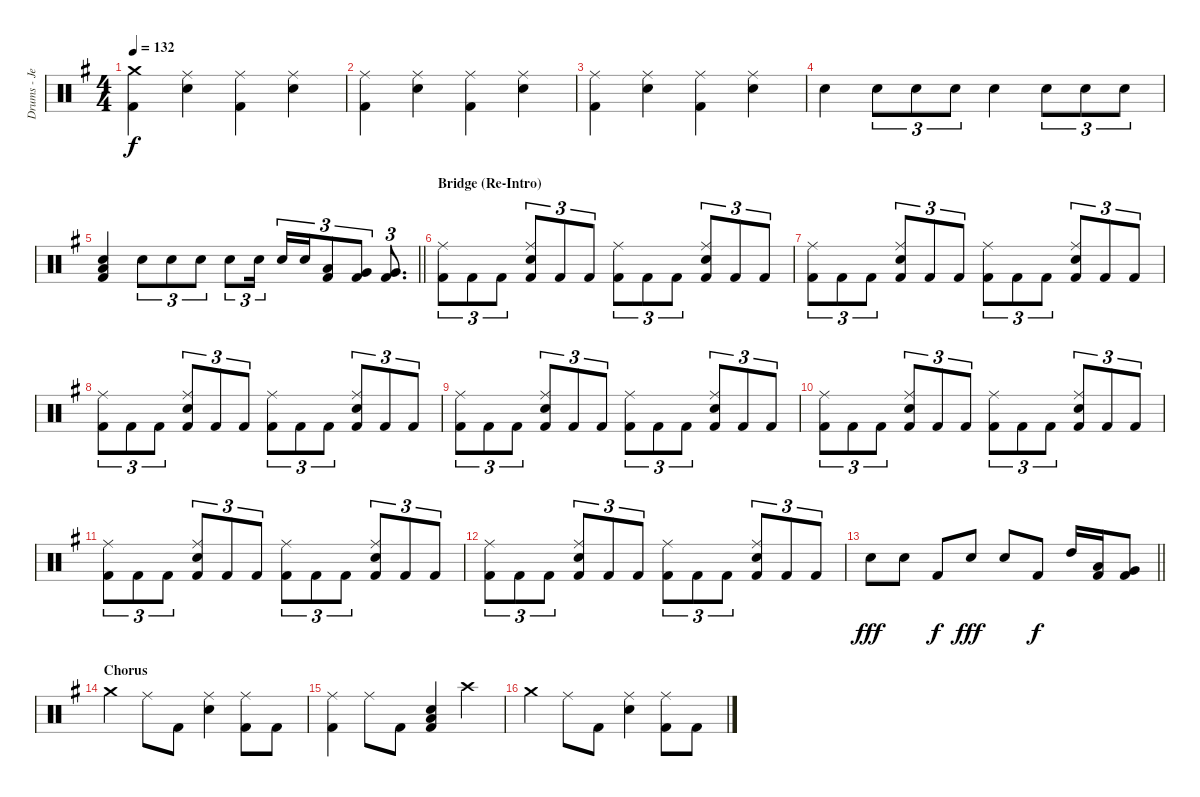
\track ("Drums - Jeroen Simons " "Drums - Je") {instrument percussion}
\staff {score}
\articulation defaults
\ts (4 4)
\tempo 132
\clef neutral
\ks g
("Crash medium (hit)" "Kick (hit) 2").4{dy f} ("Ride (middle)" "Electric Snare (hit)").4 ("Ride (middle)" "Kick (hit) 2").4 ("Ride (middle)" "Electric Snare (hit)").4 |
("Ride (middle)" "Kick (hit) 2").4 ("Ride (middle)" "Electric Snare (hit)").4 ("Ride (middle)" "Kick (hit) 2").4 ("Ride (middle)" "Electric Snare (hit)").4 |
("Ride (middle)" "Kick (hit) 2").4 ("Ride (middle)" "Electric Snare (hit)").4 ("Ride (middle)" "Kick (hit) 2").4 ("Ride (middle)" "Electric Snare (hit)").4 |
"Electric Snare (hit)".4 "Electric Snare (hit)".8{tu (3 2)} "Electric Snare (hit)".8{tu (3 2)} "Electric Snare (hit)".8{tu (3 2)} "Electric Snare (hit)".4 "Electric Snare (hit)".8{tu (3 2)} "Electric Snare (hit)".8{tu (3 2)} "Electric Snare (hit)".8{tu (3 2)} |
\barLineRight lightlight
("Low Tom (hit)" "Electric Snare (hit)" "Kick (hit) 2").4 "Electric Snare (hit)".8{tu (3 2)} "Electric Snare (hit)".8{tu (3 2)} "Electric Snare (hit)".8{tu (3 2)} "Electric Snare (hit)".8{tu (3 2)} "Electric Snare (hit)".16{tu (3 2)} "Electric Snare (hit)".16{tu (3 2)} "Electric Snare (hit)".16{tu (3 2)} ("Low Tom (hit)" "Kick (hit) 2").8{tu (3 2)} ("Very Low Tom (hit)" "Kick (hit) 2").8{tu (3 2)} ("Very Low Tom (hit)" "Kick (hit) 2").8{d tu (3 2)} |
\section ("" "Bridge (Re-Intro)")
("Ride (middle)" "Kick (hit) 2").8{tu (3 2)} "Kick (hit) 2".8{tu (3 2)} "Kick (hit) 2".8{tu (3 2)} ("Ride (middle)" "Electric Snare (hit)" "Kick (hit) 2").8{tu (3 2)} "Kick (hit) 2".8{tu (3 2)} "Kick (hit) 2".8{tu (3 2)} ("Ride (middle)" "Kick (hit) 2").8{tu (3 2)} "Kick (hit) 2".8{tu (3 2)} "Kick (hit) 2".8{tu (3 2)} ("Ride (middle)" "Electric Snare (hit)" "Kick (hit) 2").8{tu (3 2)} "Kick (hit) 2".8{tu (3 2)} "Kick (hit) 2".8{tu (3 2)} |
("Ride (middle)" "Kick (hit) 2").8{tu (3 2)} "Kick (hit) 2".8{tu (3 2)} "Kick (hit) 2".8{tu (3 2)} ("Ride (middle)" "Electric Snare (hit)" "Kick (hit) 2").8{tu (3 2)} "Kick (hit) 2".8{tu (3 2)} "Kick (hit) 2".8{tu (3 2)} ("Ride (middle)" "Kick (hit) 2").8{tu (3 2)} "Kick (hit) 2".8{tu (3 2)} "Kick (hit) 2".8{tu (3 2)} ("Ride (middle)" "Electric Snare (hit)" "Kick (hit) 2").8{tu (3 2)} "Kick (hit) 2".8{tu (3 2)} "Kick (hit) 2".8{tu (3 2)} |
("Ride (middle)" "Kick (hit) 2").8{tu (3 2)} "Kick (hit) 2".8{tu (3 2)} "Kick (hit) 2".8{tu (3 2)} ("Ride (middle)" "Electric Snare (hit)" "Kick (hit) 2").8{tu (3 2)} "Kick (hit) 2".8{tu (3 2)} "Kick (hit) 2".8{tu (3 2)} ("Ride (middle)" "Kick (hit) 2").8{tu (3 2)} "Kick (hit) 2".8{tu (3 2)} "Kick (hit) 2".8{tu (3 2)} ("Ride (middle)" "Electric Snare (hit)" "Kick (hit) 2").8{tu (3 2)} "Kick (hit) 2".8{tu (3 2)} "Kick (hit) 2".8{tu (3 2)} |
("Ride (middle)" "Kick (hit) 2").8{tu (3 2)} "Kick (hit) 2".8{tu (3 2)} "Kick (hit) 2".8{tu (3 2)} ("Ride (middle)" "Electric Snare (hit)" "Kick (hit) 2").8{tu (3 2)} "Kick (hit) 2".8{tu (3 2)} "Kick (hit) 2".8{tu (3 2)} ("Ride (middle)" "Kick (hit) 2").8{tu (3 2)} "Kick (hit) 2".8{tu (3 2)} "Kick (hit) 2".8{tu (3 2)} ("Ride (middle)" "Electric Snare (hit)" "Kick (hit) 2").8{tu (3 2)} "Kick (hit) 2".8{tu (3 2)} "Kick (hit) 2".8{tu (3 2)} |
("Ride (middle)" "Kick (hit) 2").8{tu (3 2)} "Kick (hit) 2".8{tu (3 2)} "Kick (hit) 2".8{tu (3 2)} ("Ride (middle)" "Electric Snare (hit)" "Kick (hit) 2").8{tu (3 2)} "Kick (hit) 2".8{tu (3 2)} "Kick (hit) 2".8{tu (3 2)} ("Ride (middle)" "Kick (hit) 2").8{tu (3 2)} "Kick (hit) 2".8{tu (3 2)} "Kick (hit) 2".8{tu (3 2)} ("Ride (middle)" "Electric Snare (hit)" "Kick (hit) 2").8{tu (3 2)} "Kick (hit) 2".8{tu (3 2)} "Kick (hit) 2".8{tu (3 2)} |
("Ride (middle)" "Kick (hit) 2").8{tu (3 2)} "Kick (hit) 2".8{tu (3 2)} "Kick (hit) 2".8{tu (3 2)} ("Ride (middle)" "Electric Snare (hit)" "Kick (hit) 2").8{tu (3 2)} "Kick (hit) 2".8{tu (3 2)} "Kick (hit) 2".8{tu (3 2)} ("Ride (middle)" "Kick (hit) 2").8{tu (3 2)} "Kick (hit) 2".8{tu (3 2)} "Kick (hit) 2".8{tu (3 2)} ("Ride (middle)" "Electric Snare (hit)" "Kick (hit) 2").8{tu (3 2)} "Kick (hit) 2".8{tu (3 2)} "Kick (hit) 2".8{tu (3 2)} |
("Ride (middle)" "Kick (hit) 2").8{tu (3 2)} "Kick (hit) 2".8{tu (3 2)} "Kick (hit) 2".8{tu (3 2)} ("Ride (middle)" "Electric Snare (hit)" "Kick (hit) 2").8{tu (3 2)} "Kick (hit) 2".8{tu (3 2)} "Kick (hit) 2".8{tu (3 2)} ("Ride (middle)" "Kick (hit) 2").8{tu (3 2)} "Kick (hit) 2".8{tu (3 2)} "Kick (hit) 2".8{tu (3 2)} ("Ride (middle)" "Electric Snare (hit)" "Kick (hit) 2").8{tu (3 2)} "Kick (hit) 2".8{tu (3 2)} "Kick (hit) 2".8{tu (3 2)} |
\barLineRight lightlight "Electric Snare (hit)".8{dy fff} "Electric Snare (hit)".8 "Kick (hit) 2".8{dy f} "Electric Snare (hit)".8{dy fff} "Electric Snare (hit)".8 "Kick (hit) 2".8{dy f} "High Tom (hit)".16
("Low Tom (hit)" "Kick (hit) 2").16 ("Very Low Tom (hit)" "Kick (hit) 2").8 |
\section ("" "Chorus")
"Crash medium (hit)".4 "Ride (middle)".8 "Kick (hit) 2".8 ("Ride (middle)" "Electric Snare (hit)").4 ("Ride (middle)" "Kick (hit) 2").8 "Kick (hit) 2".8 |
("Ride (middle)" "Kick (hit) 2").4 "Ride (middle)".8 "Kick (hit) 2".8 ("Low Tom (hit)" "Electric Snare (hit)" "Kick (hit) 2").4 "Crash high (hit)".4 |
"Crash medium (hit)".4 "Ride (middle)".8 "Kick (hit) 2".8 ("Ride (middle)" "Electric Snare (hit)").4 ("Ride (middle)" "Kick (hit) 2").8 "Kick (hit) 2".8
